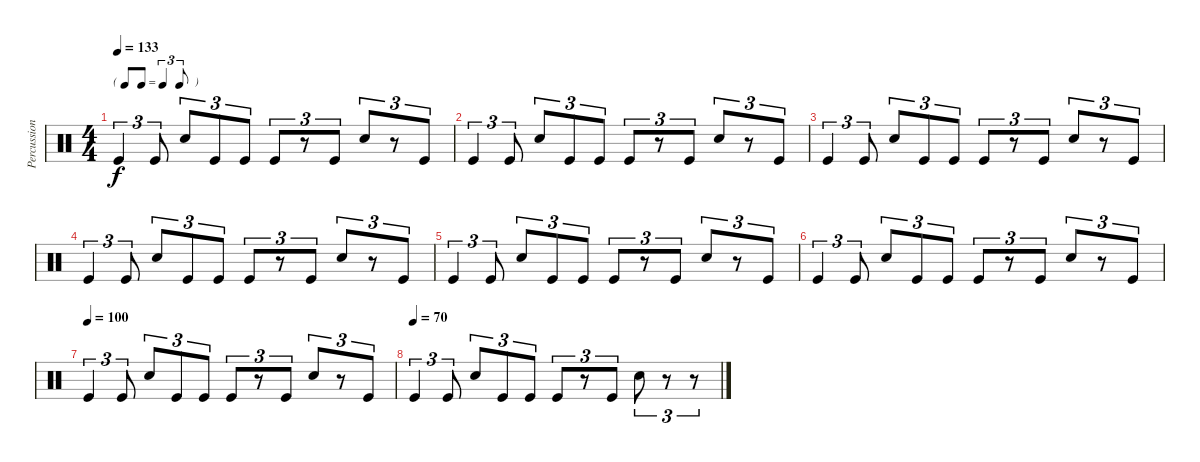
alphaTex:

\track ("Percussion" "Percussion") {instrument percussion}
\staff {score}
\articulation defaults
\ts (4 4)
\tf triplet8th
\tempo 133
\clef neutral
\ks c "Kick (hit)".4{tu (3 2) dy f} "Kick (hit)".8{tu (3 2)} "Snare (hit) 2".8{tu (3 2)} "Kick (hit)".8{tu (3 2)} "Kick (hit)".8{tu (3 2)} "Kick (hit)".8{tu (3 2)}
r.8{tu (3 2)} "Kick (hit)".8{tu (3 2)} "Snare (hit) 2".8{tu (3 2)} r.8{tu (3 2)} "Kick (hit)".8{tu (3 2)} |
"Kick (hit)".4{tu (3 2)} "Kick (hit)".8{tu (3 2)} "Snare (hit) 2".8{tu (3 2)} "Kick (hit)".8{tu (3 2)} "Kick (hit)".8{tu (3 2)} "Kick (hit)".8{tu (3 2)} r.8{tu (3 2)} "Kick (hit)".8{tu (3 2)} "Snare (hit) 2".8{tu (3 2)} r.8{tu (3 2)} "Kick (hit)".8{tu (3 2)} |
"Kick (hit)".4{tu (3 2)} "Kick (hit)".8{tu (3 2)} "Snare (hit) 2".8{tu (3 2)} "Kick (hit)".8{tu (3 2)} "Kick (hit)".8{tu (3 2)} "Kick (hit)".8{tu (3 2)} r.8{tu (3 2)} "Kick (hit)".8{tu (3 2)} "Snare (hit) 2".8{tu (3 2)} r.8{tu (3 2)} "Kick (hit)".8{tu (3 2)} |
"Kick (hit)".4{tu (3 2)} "Kick (hit)".8{tu (3 2)} "Snare (hit) 2".8{tu (3 2)} "Kick (hit)".8{tu (3 2)} "Kick (hit)".8{tu (3 2)} "Kick (hit)".8{tu (3 2)} r.8{tu (3 2)} "Kick (hit)".8{tu (3 2)} "Snare (hit) 2".8{tu (3 2)} r.8{tu (3 2)} "Kick (hit)".8{tu (3 2)} |
"Kick (hit)".4{tu (3 2)} "Kick (hit)".8{tu (3 2)} "Snare (hit) 2".8{tu (3 2)} "Kick (hit)".8{tu (3 2)} "Kick (hit)".8{tu (3 2)} "Kick (hit)".8{tu (3 2)} r.8{tu (3 2)} "Kick (hit)".8{tu (3 2)} "Snare (hit) 2".8{tu (3 2)} r.8{tu (3 2)} "Kick (hit)".8{tu (3 2)} |
"Kick (hit)".4{tu (3 2)} "Kick (hit)".8{tu (3 2)} "Snare (hit) 2".8{tu (3 2)} "Kick (hit)".8{tu (3 2)} "Kick (hit)".8{tu (3 2)} "Kick (hit)".8{tu (3 2)} r.8{tu (3 2)} "Kick (hit)".8{tu (3 2)} "Snare (hit) 2".8{tu (3 2)} r.8{tu (3 2)} "Kick (hit)".8{tu (3 2)} |
\tempo (100)
"Kick (hit)".4{tu (3 2)} "Kick (hit)".8{tu (3 2)} "Snare (hit) 2".8{tu (3 2)} "Kick (hit)".8{tu (3 2)} "Kick (hit)".8{tu (3 2)} "Kick (hit)".8{tu (3 2)} r.8{tu (3 2)} "Kick (hit)".8{tu (3 2)} "Snare (hit) 2".8{tu (3 2)} r.8{tu (3 2)} "Kick (hit)".8{tu (3 2)} |
\tempo (70)
"Kick (hit)".4{tu (3 2)} "Kick (hit)".8{tu (3 2)} "Snare (hit) 2".8{tu (3 2)} "Kick (hit)".8{tu (3 2)} "Kick (hit)".8{tu (3 2)} "Kick (hit)".8{tu (3 2)} r.8{tu (3 2)} "Kick (hit)".8{tu (3 2)} "Snare (hit) 2".8{tu (3 2)} r.8{tu (3 2)} r.8{tu (3 2)}
